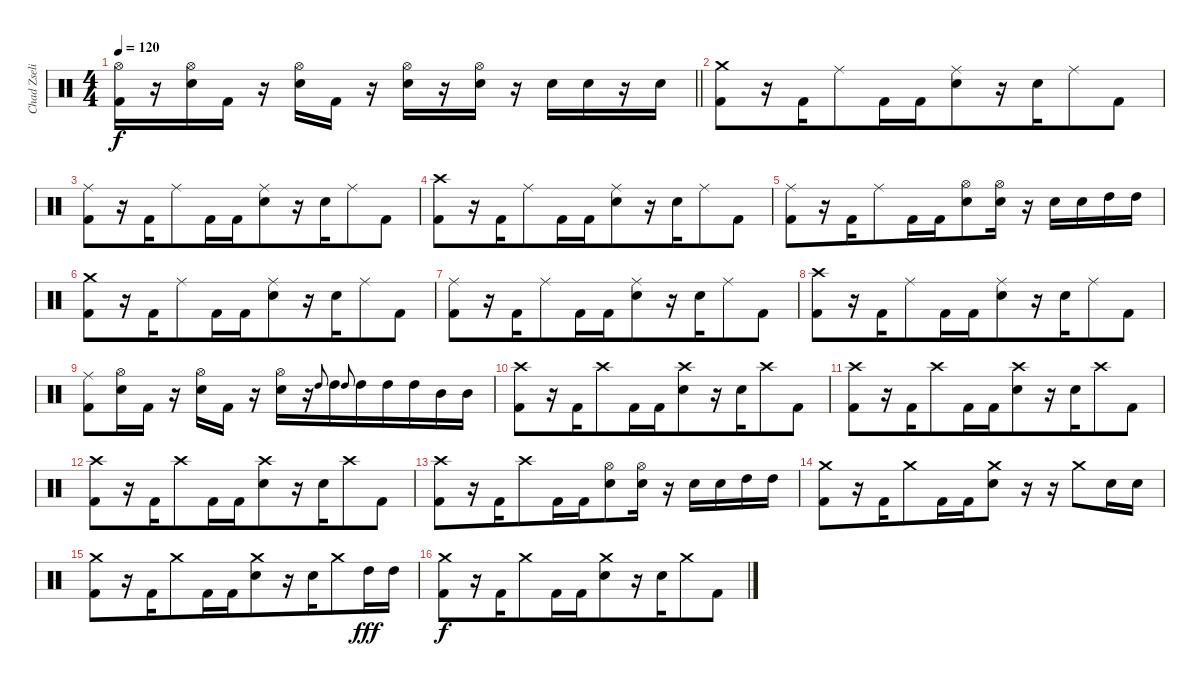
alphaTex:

\track ("Chad Zseliga (Drums)" "Chad Zseli") {instrument percussion}
\staff {score}
\articulation defaults
\ts (4 4)
\tempo 120
\clef neutral
\barLineRight lightlight
\ks c
("Hi-Hat (open)" "Kick (hit) 2").16{dy f} r.16 ("Hi-Hat (open)" "Snare (hit) 2").16 "Kick (hit) 2".16 r.16 ("Hi-Hat (open)" "Snare (hit) 2").16 "Kick (hit) 2".16 r.16 ("Hi-Hat (open)" "Snare (hit) 2").16 r.16 ("Hi-Hat (open)" "Snare (hit) 2").16 r.16 "Snare (hit) 2".16 "Snare (hit) 2".16 r.16 "Snare (hit) 2".16 |
("Crash medium (hit)" "Kick (hit) 2").8 r.16 "Kick (hit) 2".16{beam merge} "Ride (middle)".8 "Kick (hit) 2".16 "Kick (hit) 2".16{beam merge} ("Ride (middle)" "Snare (hit) 2").8 r.16 "Snare (hit) 2".16{beam merge} "Ride (middle)".8 "Kick (hit) 2".8 |
("Ride (middle)" "Kick (hit) 2").8 r.16 "Kick (hit) 2".16{beam merge} "Ride (middle)".8 "Kick (hit) 2".16 "Kick (hit) 2".16{beam merge} ("Ride (middle)" "Snare (hit) 2").8 r.16 "Snare (hit) 2".16{beam merge} "Ride (middle)".8 "Kick (hit) 2".8 |
("Crash high (hit)" "Kick (hit) 2").8 r.16 "Kick (hit) 2".16{beam merge} "Ride (middle)".8 "Kick (hit) 2".16 "Kick (hit) 2".16{beam merge} ("Ride (middle)" "Snare (hit) 2").8 r.16 "Snare (hit) 2".16{beam merge} "Ride (middle)".8 "Kick (hit) 2".8 |
("Ride (middle)" "Kick (hit) 2").8 r.16 "Kick (hit) 2".16{beam merge} "Ride (middle)".8 "Kick (hit) 2".16 "Kick (hit) 2".16{beam merge} ("Hi-Hat (open)" "Snare (hit) 2").8 ("Hi-Hat (open)" "Snare (hit) 2").16 r.16 "Snare (hit) 2".16 "Snare (hit) 2".16 "High Tom (hit)".16 "High Tom (hit)".16 |
("Crash medium (hit)" "Kick (hit) 2").8 r.16 "Kick (hit) 2".16{beam merge} "Ride (middle)".8 "Kick (hit) 2".16 "Kick (hit) 2".16{beam merge} ("Ride (middle)" "Snare (hit) 2").8 r.16 "Snare (hit) 2".16{beam merge} "Ride (middle)".8 "Kick (hit) 2".8 |
("Ride (middle)" "Kick (hit) 2").8 r.16 "Kick (hit) 2".16{beam merge} "Ride (middle)".8 "Kick (hit) 2".16 "Kick (hit) 2".16{beam merge} ("Ride (middle)" "Snare (hit) 2").8 r.16 "Snare (hit) 2".16{beam merge} "Ride (middle)".8 "Kick (hit) 2".8 |
("Crash high (hit)" "Kick (hit) 2").8 r.16 "Kick (hit) 2".16{beam merge} "Ride (middle)".8 "Kick (hit) 2".16 "Kick (hit) 2".16{beam merge} ("Ride (middle)" "Snare (hit) 2").8 r.16 "Snare (hit) 2".16{beam merge} "Ride (middle)".8 "Kick (hit) 2".8 |
("Ride (middle)" "Kick (hit) 2").8 ("Hi-Hat (open)" "Snare (hit) 2").16 "Kick (hit) 2".16 r.16 ("Hi-Hat (open)" "Snare (hit) 2").16 "Kick (hit) 2".16 r.16 ("Hi-Hat (open)" "Snare (hit) 2").16 r.16 "High Tom (hit)".8{gr onbeat} "High Tom (hit)".16 "High Tom (hit)".8{gr onbeat} "High Tom (hit)".16{beam merge} "High Tom (hit)".16 "High Tom (hit)".16 "Mid Tom (hit)".16 "Mid Tom (hit)".16 |
("Crash high (hit)" "Kick (hit) 2").8 r.16 "Kick (hit) 2".16{beam merge} "Crash high (hit)".8 "Kick (hit) 2".16 "Kick (hit) 2".16{beam merge} ("Crash high (hit)" "Snare (hit) 2").8 r.16 "Snare (hit) 2".16{beam merge} "Crash high (hit)".8 "Kick (hit) 2".8 |
("Crash high (hit)" "Kick (hit) 2").8 r.16 "Kick (hit) 2".16{beam merge} "Crash high (hit)".8 "Kick (hit) 2".16 "Kick (hit) 2".16{beam merge} ("Crash high (hit)" "Snare (hit) 2").8 r.16 "Snare (hit) 2".16{beam merge} "Crash high (hit)".8 "Kick (hit) 2".8 |
("Crash high (hit)" "Kick (hit) 2").8 r.16 "Kick (hit) 2".16{beam merge} "Crash high (hit)".8 "Kick (hit) 2".16 "Kick (hit) 2".16{beam merge} ("Crash high (hit)" "Snare (hit) 2").8 r.16 "Snare (hit) 2".16{beam merge} "Crash high (hit)".8 "Kick (hit) 2".8 |
("Crash high (hit)" "Kick (hit) 2").8 r.16 "Kick (hit) 2".16{beam merge} "Crash high (hit)".8 "Kick (hit) 2".16 "Kick (hit) 2".16{beam merge} ("Hi-Hat (open)" "Snare (hit) 2").8 ("Hi-Hat (open)" "Snare (hit) 2").16 r.16 "Snare (hit) 2".16 "Snare (hit) 2".16 "High Tom (hit)".16 "High Tom (hit)".16 |
("Crash medium (hit)" "Kick (hit) 2").8 r.16 "Kick (hit) 2".16{beam merge} "Crash medium (hit)".8 "Kick (hit) 2".16 "Kick (hit) 2".16{beam merge} ("Crash medium (hit)" "Snare (hit) 2").8 r.16 r.16 "Crash medium (hit)".8 "Snare (hit) 2".16 "Snare (hit) 2".16 |
("Crash medium (hit)" "Kick (hit) 2").8 r.16 "Kick (hit) 2".16{beam merge} "Crash medium (hit)".8 "Kick (hit) 2".16 "Kick (hit) 2".16{beam merge} ("Crash medium (hit)" "Snare (hit) 2").8 r.16 "Snare (hit) 2".16{beam merge} "Crash medium (hit)".8 "High Tom (hit)".16{dy fff} "High Tom (hit)".16 |
("Crash medium (hit)" "Kick (hit) 2").8{dy f} r.16 "Kick (hit) 2".16{beam merge} "Crash medium (hit)".8 "Kick (hit) 2".16 "Kick (hit) 2".16{beam merge} ("Crash medium (hit)" "Snare (hit) 2").8 r.16 "Snare (hit) 2".16{beam merge} "Crash medium (hit)".8 "Kick (hit) 2".8
